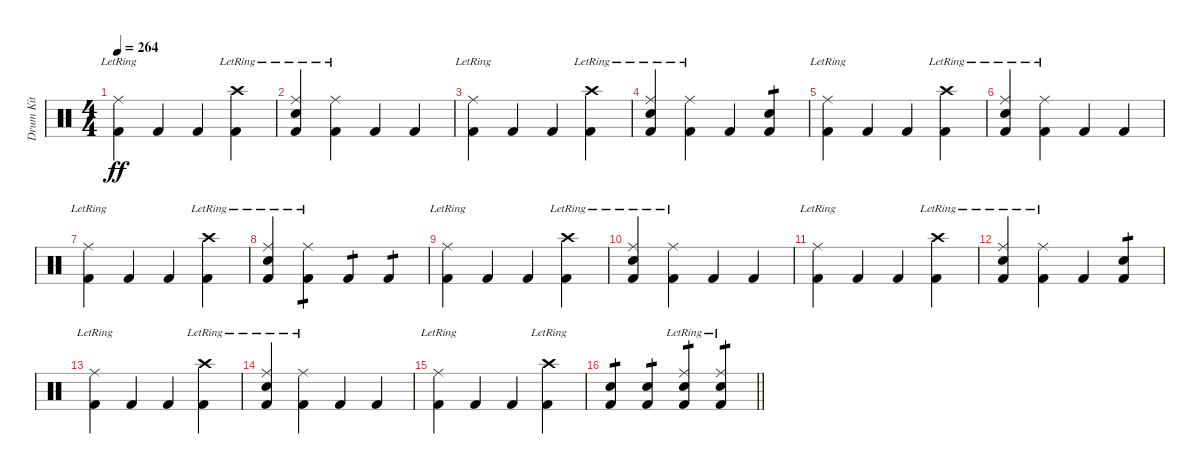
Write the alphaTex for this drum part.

\track ("Drum Kit" "Drum Kit") {instrument percussion}
\staff {score}
\articulation defaults
\ts (4 4)
\tempo 264
\clef neutral
\ks c
("Kick (hit) 2" "Ride (middle)"{lr}).4{dy ff} "Kick (hit) 2".4 "Kick (hit) 2".4 ("Kick (hit) 2" "Crash high (hit)"{lr}).4 |
("Kick (hit) 2" "Snare (hit) 2" "Ride (middle)"{lr}).4 ("Kick (hit) 2" "Ride (middle)"{lr}).4 "Kick (hit) 2".4 "Kick (hit) 2".4 |
("Kick (hit) 2" "Ride (middle)"{lr}).4 "Kick (hit) 2".4 "Kick (hit) 2".4 ("Kick (hit) 2" "Crash high (hit)"{lr}).4 |
("Kick (hit) 2" "Snare (hit) 2" "Ride (middle)"{lr}).4 ("Kick (hit) 2" "Ride (middle)"{lr}).4 "Kick (hit) 2".4 ("Kick (hit) 2" "Snare (hit) 2").4{tp 1} |
("Kick (hit) 2" "Ride (middle)"{lr}).4 "Kick (hit) 2".4 "Kick (hit) 2".4 ("Kick (hit) 2" "Crash high (hit)"{lr}).4 |
("Kick (hit) 2" "Snare (hit) 2" "Ride (middle)"{lr}).4 ("Kick (hit) 2" "Ride (middle)"{lr}).4 "Kick (hit) 2".4 "Kick (hit) 2".4 |
("Kick (hit) 2" "Ride (middle)"{lr}).4 "Kick (hit) 2".4 "Kick (hit) 2".4 ("Kick (hit) 2" "Crash high (hit)"{lr}).4 |
("Kick (hit) 2" "Snare (hit) 2" "Ride (middle)"{lr}).4 ("Kick (hit) 2" "Ride (middle)"{lr}).4{tp 1} "Kick (hit) 2".4{tp 1} "Kick (hit) 2".4{tp 1} |
("Kick (hit) 2" "Ride (middle)"{lr}).4 "Kick (hit) 2".4 "Kick (hit) 2".4 ("Kick (hit) 2" "Crash high (hit)"{lr}).4 |
("Kick (hit) 2" "Snare (hit) 2" "Ride (middle)"{lr}).4 ("Kick (hit) 2" "Ride (middle)"{lr}).4 "Kick (hit) 2".4 "Kick (hit) 2".4 |
("Kick (hit) 2" "Ride (middle)"{lr}).4 "Kick (hit) 2".4 "Kick (hit) 2".4 ("Kick (hit) 2" "Crash high (hit)"{lr}).4 |
("Kick (hit) 2" "Snare (hit) 2" "Ride (middle)"{lr}).4 ("Kick (hit) 2" "Ride (middle)"{lr}).4 "Kick (hit) 2".4 ("Kick (hit) 2" "Snare (hit) 2").4{tp 1} |
("Kick (hit) 2" "Ride (middle)"{lr}).4 "Kick (hit) 2".4 "Kick (hit) 2".4 ("Kick (hit) 2" "Crash high (hit)"{lr}).4 |
("Kick (hit) 2" "Snare (hit) 2" "Ride (middle)"{lr}).4 ("Kick (hit) 2" "Ride (middle)"{lr}).4 "Kick (hit) 2".4 "Kick (hit) 2".4 |
("Kick (hit) 2" "Ride (middle)"{lr}).4 "Kick (hit) 2".4 "Kick (hit) 2".4 ("Kick (hit) 2" "Crash high (hit)"{lr}).4 |
\barLineRight lightlight
("Kick (hit) 2" "Snare (hit) 2").4{tp 1} ("Kick (hit) 2" "Snare (hit) 2").4{tp 1} ("Kick (hit) 2" "Snare (hit) 2" "Ride (middle)"{lr}).4{tp 1} ("Kick (hit) 2" "Snare (hit) 2" "Ride (middle)"{lr}).4{tp 1}
